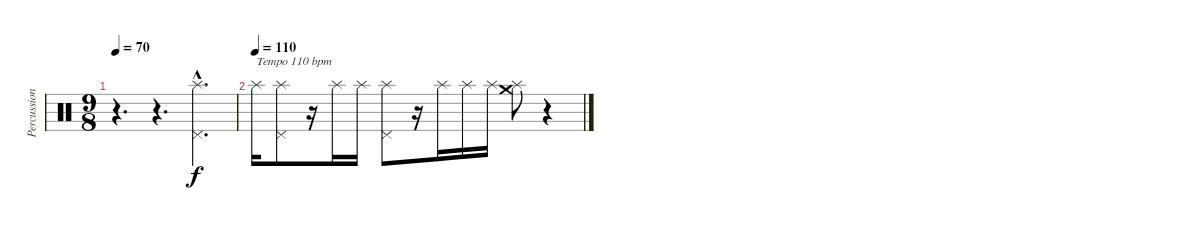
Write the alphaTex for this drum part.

\track ("Percussion" "Percussion") {instrument percussion}
\staff {score}
\articulation defaults
\ts (9 8)
\tempo 70
\clef neutral
\ks c
r.4{d dy f} r.4{d} ("Pedal Hi-Hat (hit)"{hac} "Splash (hit)"{hac}).4{d} |
\tempo (110)
"Splash (hit)".16{txt "Tempo 110 bpm" volume 6} ("Pedal Hi-Hat (hit)" "Splash (hit)").8 r.16 "Splash (hit)".16 "Splash (hit)".16 ("Pedal Hi-Hat (hit)" "Splash (hit)").8 r.16 "Splash (hit)".16 "Splash (hit)".16 "Splash (hit)".16 ("Crash medium (hit)" "Splash (hit)").8 r.4
